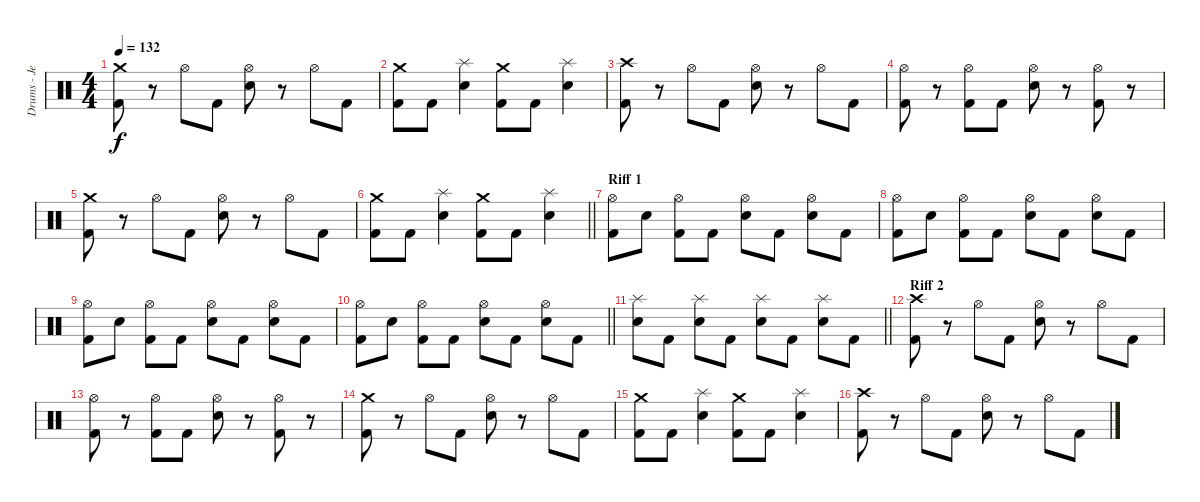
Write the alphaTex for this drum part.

\track ("Drums - Jess Margera" "Drums - Je") {instrument percussion}
\staff {score}
\articulation defaults
\ts (4 4)
\tempo 132
\clef neutral
\ks c
("Crash medium (hit)" "Kick (hit) 2").8{dy f} r.8 "Hi-Hat (open)".8 "Kick (hit) 2".8 ("Hi-Hat (open)" "Electric Snare (hit)").8 r.8 "Hi-Hat (open)".8 "Kick (hit) 2".8 |
("Crash medium (hit)" "Kick (hit) 2").8 "Kick (hit) 2".8 ("Splash (hit)" "Electric Snare (hit)").4 ("Crash medium (hit)" "Kick (hit) 2").8 "Kick (hit) 2".8 ("Splash (hit)" "Electric Snare (hit)").4 |
("Crash high (hit)" "Kick (hit) 2").8 r.8 "Hi-Hat (open)".8 "Kick (hit) 2".8 ("Hi-Hat (open)" "Electric Snare (hit)").8 r.8 "Hi-Hat (open)".8 "Kick (hit) 2".8 |
("Hi-Hat (open)" "Kick (hit) 2").8 r.8 ("Hi-Hat (open)" "Kick (hit) 2").8 "Kick (hit) 2".8 ("Hi-Hat (open)" "Electric Snare (hit)").8 r.8 ("Hi-Hat (open)" "Kick (hit) 2").8 r.8 |
("Crash medium (hit)" "Kick (hit) 2").8 r.8 "Hi-Hat (open)".8 "Kick (hit) 2".8 ("Hi-Hat (open)" "Electric Snare (hit)").8 r.8 "Hi-Hat (open)".8 "Kick (hit) 2".8 |
\barLineRight lightlight
("Crash medium (hit)" "Kick (hit) 2").8 "Kick (hit) 2".8 ("Splash (hit)" "Electric Snare (hit)").4 ("Crash medium (hit)" "Kick (hit) 2").8 "Kick (hit) 2".8 ("Splash (hit)" "Electric Snare (hit)").4 |
\section ("" "Riff 1")
("Hi-Hat (open)" "Kick (hit) 2").8 "Electric Snare (hit)".8 ("Hi-Hat (open)" "Kick (hit) 2").8 "Kick (hit) 2".8 ("Hi-Hat (open)" "Electric Snare (hit)").8 "Kick (hit) 2".8 ("Hi-Hat (open)" "Electric Snare (hit)").8 "Kick (hit) 2".8 |
("Hi-Hat (open)" "Kick (hit) 2").8 "Electric Snare (hit)".8 ("Hi-Hat (open)" "Kick (hit) 2").8 "Kick (hit) 2".8 ("Hi-Hat (open)" "Electric Snare (hit)").8 "Kick (hit) 2".8 ("Hi-Hat (open)" "Electric Snare (hit)").8 "Kick (hit) 2".8 |
("Hi-Hat (open)" "Kick (hit) 2").8 "Electric Snare (hit)".8 ("Hi-Hat (open)" "Kick (hit) 2").8 "Kick (hit) 2".8 ("Hi-Hat (open)" "Electric Snare (hit)").8 "Kick (hit) 2".8 ("Hi-Hat (open)" "Electric Snare (hit)").8 "Kick (hit) 2".8 |
\barLineRight lightlight
("Hi-Hat (open)" "Kick (hit) 2").8 "Electric Snare (hit)".8 ("Hi-Hat (open)" "Kick (hit) 2").8 "Kick (hit) 2".8 ("Hi-Hat (open)" "Electric Snare (hit)").8 "Kick (hit) 2".8 ("Hi-Hat (open)" "Electric Snare (hit)").8 "Kick (hit) 2".8 |
\barLineRight lightlight
("Splash (hit)" "Electric Snare (hit)").8 "Kick (hit) 2".8 ("Splash (hit)" "Electric Snare (hit)").8 "Kick (hit) 2".8 ("Splash (hit)" "Electric Snare (hit)").8 "Kick (hit) 2".8 ("Splash (hit)" "Electric Snare (hit)").8 "Kick (hit) 2".8 |
\section ("" "Riff 2")
("Crash high (hit)" "Kick (hit) 2").8 r.8 "Hi-Hat (open)".8 "Kick (hit) 2".8 ("Hi-Hat (open)" "Electric Snare (hit)").8 r.8 "Hi-Hat (open)".8 "Kick (hit) 2".8 |
("Hi-Hat (open)" "Kick (hit) 2").8 r.8 ("Hi-Hat (open)" "Kick (hit) 2").8 "Kick (hit) 2".8 ("Hi-Hat (open)" "Electric Snare (hit)").8 r.8 ("Hi-Hat (open)" "Kick (hit) 2").8 r.8 |
("Crash medium (hit)" "Kick (hit) 2").8 r.8 "Hi-Hat (open)".8 "Kick (hit) 2".8 ("Hi-Hat (open)" "Electric Snare (hit)").8 r.8 "Hi-Hat (open)".8 "Kick (hit) 2".8 |
("Crash medium (hit)" "Kick (hit) 2").8 "Kick (hit) 2".8 ("Splash (hit)" "Electric Snare (hit)").4 ("Crash medium (hit)" "Kick (hit) 2").8 "Kick (hit) 2".8 ("Splash (hit)" "Electric Snare (hit)").4 |
("Crash high (hit)" "Kick (hit) 2").8 r.8 "Hi-Hat (open)".8 "Kick (hit) 2".8 ("Hi-Hat (open)" "Electric Snare (hit)").8 r.8 "Hi-Hat (open)".8 "Kick (hit) 2".8
